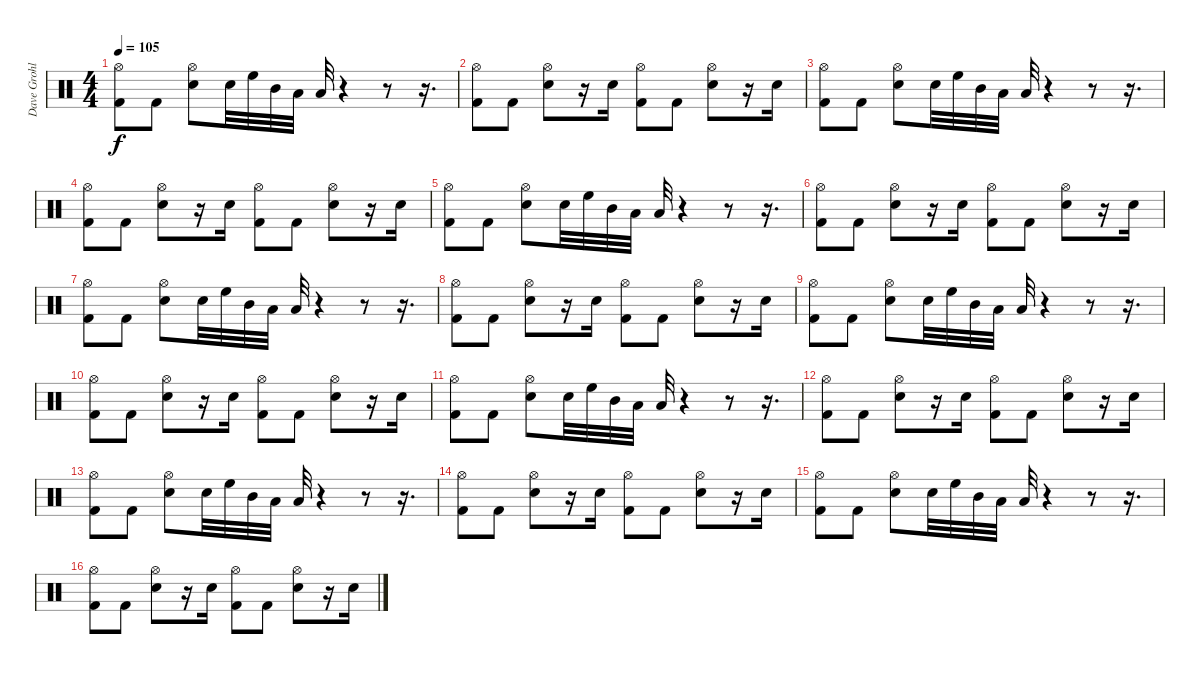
\track ("Dave Grohl" "Dave Grohl") {instrument percussion}
\staff {score}
\articulation defaults
\ts (4 4)
\tempo 105
\clef neutral
\ks c
("Hi-Hat (open)" "Kick (hit) 2").8{dy f} "Kick (hit) 2".8 ("Hi-Hat (open)" "Snare (hit) 2").8 "Snare (hit) 2".32 "High Floor Tom (hit)".32 "Mid Tom (hit)".32 "Low Tom (hit)".32 "Low Floor Tom (hit)".32 r.4 r.8 r.16{d} |
("Hi-Hat (open)" "Kick (hit) 2").8 "Kick (hit) 2".8 ("Hi-Hat (open)" "Snare (hit) 2").8 r.16 "Snare (hit) 2".16 ("Hi-Hat (open)" "Kick (hit) 2").8 "Kick (hit) 2".8 ("Hi-Hat (open)" "Snare (hit) 2").8 r.16 "Snare (hit) 2".16 |
("Hi-Hat (open)" "Kick (hit) 2").8 "Kick (hit) 2".8 ("Hi-Hat (open)" "Snare (hit) 2").8 "Snare (hit) 2".32 "High Floor Tom (hit)".32 "Mid Tom (hit)".32 "Low Tom (hit)".32 "Low Floor Tom (hit)".32 r.4 r.8 r.16{d} |
("Hi-Hat (open)" "Kick (hit) 2").8 "Kick (hit) 2".8 ("Hi-Hat (open)" "Snare (hit) 2").8 r.16 "Snare (hit) 2".16 ("Hi-Hat (open)" "Kick (hit) 2").8 "Kick (hit) 2".8 ("Hi-Hat (open)" "Snare (hit) 2").8 r.16 "Snare (hit) 2".16 |
("Hi-Hat (open)" "Kick (hit) 2").8 "Kick (hit) 2".8 ("Hi-Hat (open)" "Snare (hit) 2").8 "Snare (hit) 2".32 "High Floor Tom (hit)".32 "Mid Tom (hit)".32 "Low Tom (hit)".32 "Low Floor Tom (hit)".32 r.4 r.8 r.16{d} |
("Hi-Hat (open)" "Kick (hit) 2").8 "Kick (hit) 2".8 ("Hi-Hat (open)" "Snare (hit) 2").8 r.16 "Snare (hit) 2".16 ("Hi-Hat (open)" "Kick (hit) 2").8 "Kick (hit) 2".8 ("Hi-Hat (open)" "Snare (hit) 2").8 r.16 "Snare (hit) 2".16 |
("Hi-Hat (open)" "Kick (hit) 2").8 "Kick (hit) 2".8 ("Hi-Hat (open)" "Snare (hit) 2").8 "Snare (hit) 2".32 "High Floor Tom (hit)".32 "Mid Tom (hit)".32 "Low Tom (hit)".32 "Low Floor Tom (hit)".32 r.4 r.8 r.16{d} |
("Hi-Hat (open)" "Kick (hit) 2").8 "Kick (hit) 2".8 ("Hi-Hat (open)" "Snare (hit) 2").8 r.16 "Snare (hit) 2".16 ("Hi-Hat (open)" "Kick (hit) 2").8 "Kick (hit) 2".8 ("Hi-Hat (open)" "Snare (hit) 2").8 r.16 "Snare (hit) 2".16 |
("Hi-Hat (open)" "Kick (hit) 2").8 "Kick (hit) 2".8 ("Hi-Hat (open)" "Snare (hit) 2").8 "Snare (hit) 2".32 "High Floor Tom (hit)".32 "Mid Tom (hit)".32 "Low Tom (hit)".32 "Low Floor Tom (hit)".32 r.4 r.8 r.16{d} |
("Hi-Hat (open)" "Kick (hit) 2").8 "Kick (hit) 2".8 ("Hi-Hat (open)" "Snare (hit) 2").8 r.16 "Snare (hit) 2".16 ("Hi-Hat (open)" "Kick (hit) 2").8 "Kick (hit) 2".8 ("Hi-Hat (open)" "Snare (hit) 2").8 r.16 "Snare (hit) 2".16 |
("Hi-Hat (open)" "Kick (hit) 2").8 "Kick (hit) 2".8 ("Hi-Hat (open)" "Snare (hit) 2").8 "Snare (hit) 2".32 "High Floor Tom (hit)".32 "Mid Tom (hit)".32 "Low Tom (hit)".32 "Low Floor Tom (hit)".32 r.4 r.8 r.16{d} |
("Hi-Hat (open)" "Kick (hit) 2").8 "Kick (hit) 2".8 ("Hi-Hat (open)" "Snare (hit) 2").8 r.16 "Snare (hit) 2".16 ("Hi-Hat (open)" "Kick (hit) 2").8 "Kick (hit) 2".8 ("Hi-Hat (open)" "Snare (hit) 2").8 r.16 "Snare (hit) 2".16 |
("Hi-Hat (open)" "Kick (hit) 2").8 "Kick (hit) 2".8 ("Hi-Hat (open)" "Snare (hit) 2").8 "Snare (hit) 2".32 "High Floor Tom (hit)".32 "Mid Tom (hit)".32 "Low Tom (hit)".32 "Low Floor Tom (hit)".32 r.4 r.8 r.16{d} |
("Hi-Hat (open)" "Kick (hit) 2").8 "Kick (hit) 2".8 ("Hi-Hat (open)" "Snare (hit) 2").8 r.16 "Snare (hit) 2".16 ("Hi-Hat (open)" "Kick (hit) 2").8 "Kick (hit) 2".8 ("Hi-Hat (open)" "Snare (hit) 2").8 r.16 "Snare (hit) 2".16 |
("Hi-Hat (open)" "Kick (hit) 2").8 "Kick (hit) 2".8 ("Hi-Hat (open)" "Snare (hit) 2").8 "Snare (hit) 2".32 "High Floor Tom (hit)".32 "Mid Tom (hit)".32 "Low Tom (hit)".32 "Low Floor Tom (hit)".32 r.4 r.8 r.16{d} |
("Hi-Hat (open)" "Kick (hit) 2").8 "Kick (hit) 2".8 ("Hi-Hat (open)" "Snare (hit) 2").8 r.16 "Snare (hit) 2".16 ("Hi-Hat (open)" "Kick (hit) 2").8 "Kick (hit) 2".8 ("Hi-Hat (open)" "Snare (hit) 2").8 r.16 "Snare (hit) 2".16
